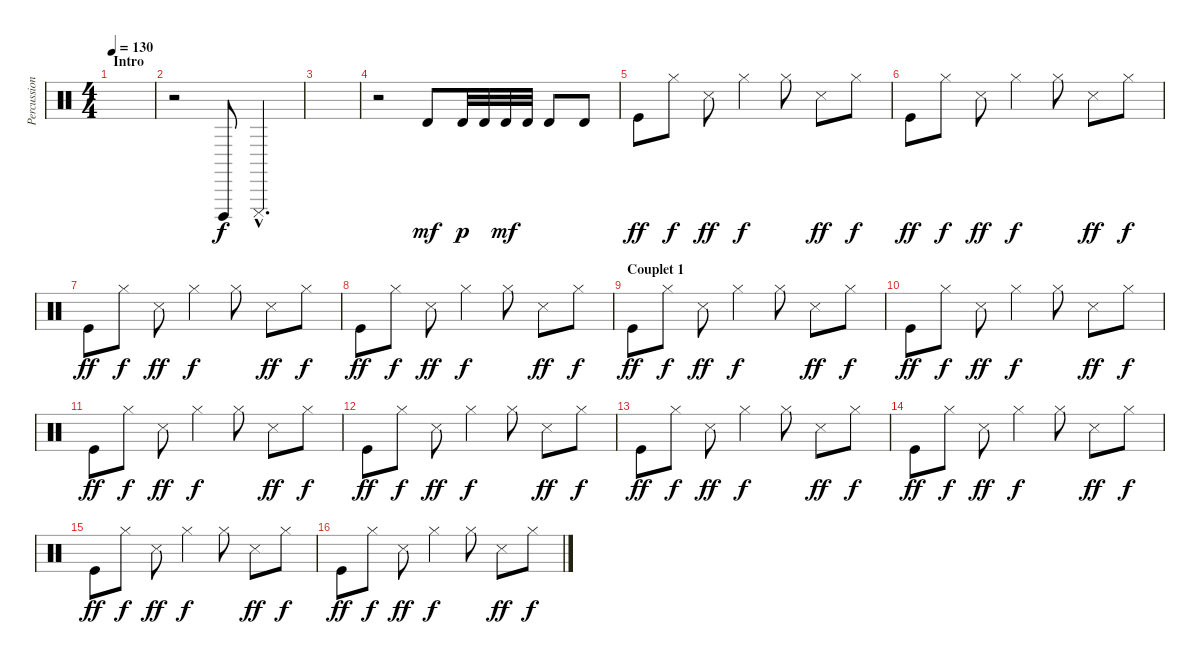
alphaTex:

\track ("Percussions" "Percussion") {instrument percussion}
\staff {score}
\articulation defaults
\ts (4 4)
\section ("" "Intro")
\tempo 130
\clef neutral
\ks c
|
r.2 "Cuica (open)".8 "Cuica (mute)"{hac}.4{d} |
|
r.2 "Timbale high (hit)".8{dy mf} "Timbale high (hit)".32{dy p} "Timbale high (hit)".32 "Timbale high (hit)".32{dy mf} "Timbale high (hit)".32 "Timbale high (hit)".8 "Timbale high (hit)".8 |
"Kick (hit)".8{dy ff} "Hi-Hat (closed)".8{dy f} "Snare (side stick) 3".8{dy ff} "Hi-Hat (closed)".4{dy f} "Hi-Hat (closed)".8 "Snare (side stick) 3".8{dy ff} "Hi-Hat (closed)".8{dy f} |
"Kick (hit)".8{dy ff} "Hi-Hat (closed)".8{dy f} "Snare (side stick) 3".8{dy ff} "Hi-Hat (closed)".4{dy f} "Hi-Hat (closed)".8 "Snare (side stick) 3".8{dy ff} "Hi-Hat (closed)".8{dy f} |
"Kick (hit)".8{dy ff} "Hi-Hat (closed)".8{dy f} "Snare (side stick) 3".8{dy ff} "Hi-Hat (closed)".4{dy f} "Hi-Hat (closed)".8 "Snare (side stick) 3".8{dy ff} "Hi-Hat (closed)".8{dy f} |
"Kick (hit)".8{dy ff} "Hi-Hat (closed)".8{dy f} "Snare (side stick) 3".8{dy ff} "Hi-Hat (closed)".4{dy f} "Hi-Hat (closed)".8 "Snare (side stick) 3".8{dy ff} "Hi-Hat (closed)".8{dy f} |
\section ("" "Couplet 1")
"Kick (hit)".8{dy ff} "Hi-Hat (closed)".8{dy f} "Snare (side stick) 3".8{dy ff} "Hi-Hat (closed)".4{dy f} "Hi-Hat (closed)".8 "Snare (side stick) 3".8{dy ff} "Hi-Hat (closed)".8{dy f} |
"Kick (hit)".8{dy ff} "Hi-Hat (closed)".8{dy f} "Snare (side stick) 3".8{dy ff} "Hi-Hat (closed)".4{dy f} "Hi-Hat (closed)".8 "Snare (side stick) 3".8{dy ff} "Hi-Hat (closed)".8{dy f} |
"Kick (hit)".8{dy ff} "Hi-Hat (closed)".8{dy f} "Snare (side stick) 3".8{dy ff} "Hi-Hat (closed)".4{dy f} "Hi-Hat (closed)".8 "Snare (side stick) 3".8{dy ff} "Hi-Hat (closed)".8{dy f} |
"Kick (hit)".8{dy ff} "Hi-Hat (closed)".8{dy f} "Snare (side stick) 3".8{dy ff} "Hi-Hat (closed)".4{dy f} "Hi-Hat (closed)".8 "Snare (side stick) 3".8{dy ff} "Hi-Hat (closed)".8{dy f} |
"Kick (hit)".8{dy ff} "Hi-Hat (closed)".8{dy f} "Snare (side stick) 3".8{dy ff} "Hi-Hat (closed)".4{dy f} "Hi-Hat (closed)".8 "Snare (side stick) 3".8{dy ff} "Hi-Hat (closed)".8{dy f} |
"Kick (hit)".8{dy ff} "Hi-Hat (closed)".8{dy f} "Snare (side stick) 3".8{dy ff} "Hi-Hat (closed)".4{dy f} "Hi-Hat (closed)".8 "Snare (side stick) 3".8{dy ff} "Hi-Hat (closed)".8{dy f} |
"Kick (hit)".8{dy ff} "Hi-Hat (closed)".8{dy f} "Snare (side stick) 3".8{dy ff} "Hi-Hat (closed)".4{dy f} "Hi-Hat (closed)".8 "Snare (side stick) 3".8{dy ff} "Hi-Hat (closed)".8{dy f} |
"Kick (hit)".8{dy ff} "Hi-Hat (closed)".8{dy f} "Snare (side stick) 3".8{dy ff} "Hi-Hat (closed)".4{dy f} "Hi-Hat (closed)".8 "Snare (side stick) 3".8{dy ff} "Hi-Hat (closed)".8{dy f}
